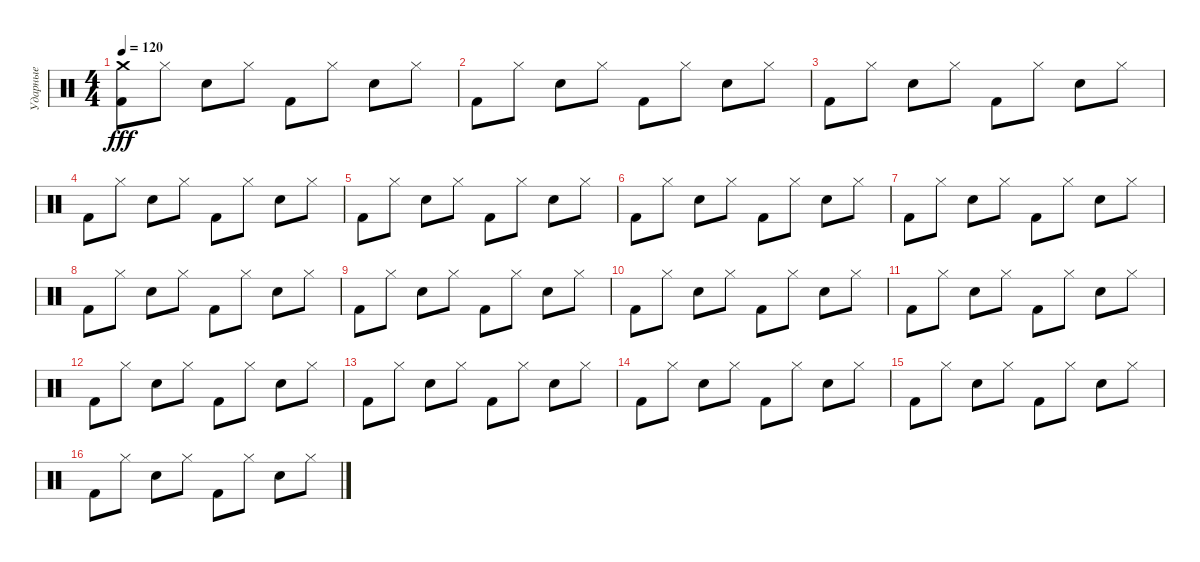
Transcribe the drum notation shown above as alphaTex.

\track ("Ударные" "Ударные") {instrument percussion}
\staff {score}
\articulation defaults
\ts (4 4)
\tempo 120
\clef neutral
\ks c
("Crash medium (hit)" "Kick (hit) 2").8{dy fff} "Hi-Hat (closed)".8 "Electric Snare (hit)".8 "Hi-Hat (closed)".8 "Kick (hit) 2".8 "Hi-Hat (closed)".8 "Electric Snare (hit)".8 "Hi-Hat (closed)".8 |
"Kick (hit) 2".8 "Hi-Hat (closed)".8 "Electric Snare (hit)".8 "Hi-Hat (closed)".8 "Kick (hit) 2".8 "Hi-Hat (closed)".8 "Electric Snare (hit)".8 "Hi-Hat (closed)".8 |
"Kick (hit) 2".8 "Hi-Hat (closed)".8 "Electric Snare (hit)".8 "Hi-Hat (closed)".8 "Kick (hit) 2".8 "Hi-Hat (closed)".8 "Electric Snare (hit)".8 "Hi-Hat (closed)".8 |
"Kick (hit) 2".8 "Hi-Hat (closed)".8 "Electric Snare (hit)".8 "Hi-Hat (closed)".8 "Kick (hit) 2".8 "Hi-Hat (closed)".8 "Electric Snare (hit)".8 "Hi-Hat (closed)".8 |
"Kick (hit) 2".8 "Hi-Hat (closed)".8 "Electric Snare (hit)".8 "Hi-Hat (closed)".8 "Kick (hit) 2".8 "Hi-Hat (closed)".8 "Electric Snare (hit)".8 "Hi-Hat (closed)".8 |
"Kick (hit) 2".8 "Hi-Hat (closed)".8 "Electric Snare (hit)".8 "Hi-Hat (closed)".8 "Kick (hit) 2".8 "Hi-Hat (closed)".8 "Electric Snare (hit)".8 "Hi-Hat (closed)".8 |
"Kick (hit) 2".8 "Hi-Hat (closed)".8 "Electric Snare (hit)".8 "Hi-Hat (closed)".8 "Kick (hit) 2".8 "Hi-Hat (closed)".8 "Electric Snare (hit)".8 "Hi-Hat (closed)".8 |
"Kick (hit) 2".8 "Hi-Hat (closed)".8 "Electric Snare (hit)".8 "Hi-Hat (closed)".8 "Kick (hit) 2".8 "Hi-Hat (closed)".8 "Electric Snare (hit)".8 "Hi-Hat (closed)".8 |
"Kick (hit) 2".8 "Hi-Hat (closed)".8 "Electric Snare (hit)".8 "Hi-Hat (closed)".8 "Kick (hit) 2".8 "Hi-Hat (closed)".8 "Electric Snare (hit)".8 "Hi-Hat (closed)".8 |
"Kick (hit) 2".8 "Hi-Hat (closed)".8 "Electric Snare (hit)".8 "Hi-Hat (closed)".8 "Kick (hit) 2".8 "Hi-Hat (closed)".8 "Electric Snare (hit)".8 "Hi-Hat (closed)".8 |
"Kick (hit) 2".8 "Hi-Hat (closed)".8 "Electric Snare (hit)".8 "Hi-Hat (closed)".8 "Kick (hit) 2".8 "Hi-Hat (closed)".8 "Electric Snare (hit)".8 "Hi-Hat (closed)".8 |
"Kick (hit) 2".8 "Hi-Hat (closed)".8 "Electric Snare (hit)".8 "Hi-Hat (closed)".8 "Kick (hit) 2".8 "Hi-Hat (closed)".8 "Electric Snare (hit)".8 "Hi-Hat (closed)".8 |
"Kick (hit) 2".8 "Hi-Hat (closed)".8 "Electric Snare (hit)".8 "Hi-Hat (closed)".8 "Kick (hit) 2".8 "Hi-Hat (closed)".8 "Electric Snare (hit)".8 "Hi-Hat (closed)".8 |
"Kick (hit) 2".8 "Hi-Hat (closed)".8 "Electric Snare (hit)".8 "Hi-Hat (closed)".8 "Kick (hit) 2".8 "Hi-Hat (closed)".8 "Electric Snare (hit)".8 "Hi-Hat (closed)".8 |
"Kick (hit) 2".8 "Hi-Hat (closed)".8 "Electric Snare (hit)".8 "Hi-Hat (closed)".8 "Kick (hit) 2".8 "Hi-Hat (closed)".8 "Electric Snare (hit)".8 "Hi-Hat (closed)".8 |
"Kick (hit) 2".8 "Hi-Hat (closed)".8 "Electric Snare (hit)".8 "Hi-Hat (closed)".8 "Kick (hit) 2".8 "Hi-Hat (closed)".8 "Electric Snare (hit)".8 "Hi-Hat (closed)".8
